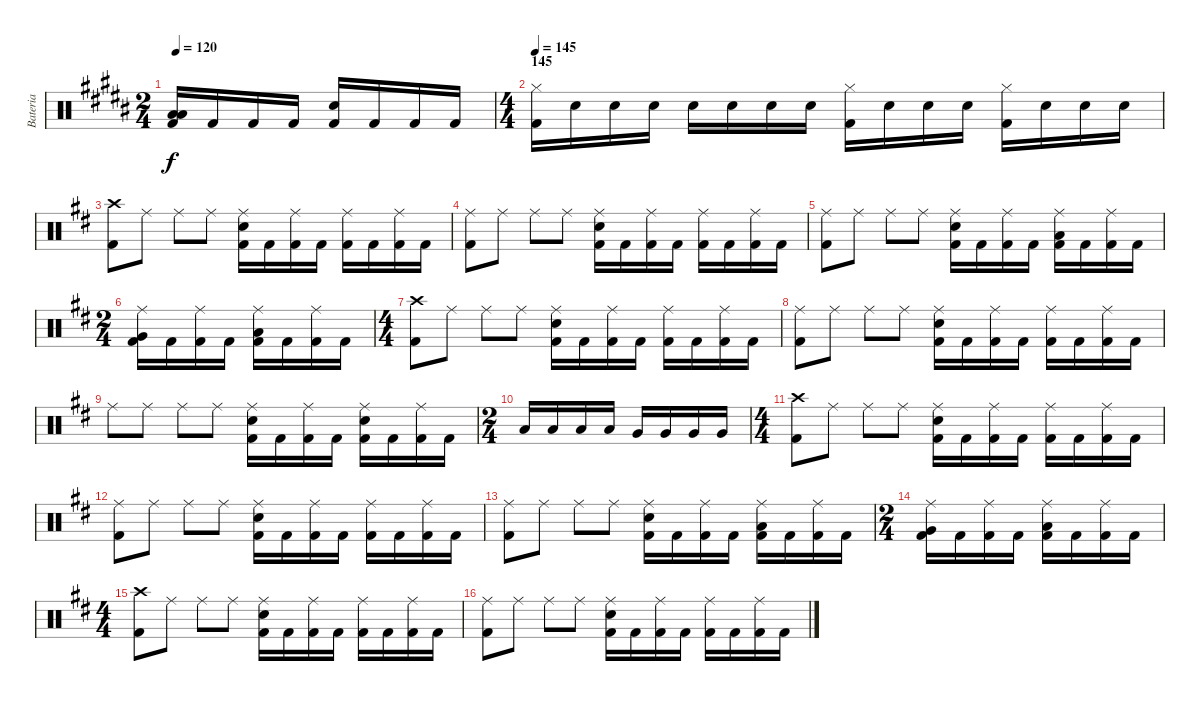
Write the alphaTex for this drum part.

\track ("Bateria" "Bateria") {instrument percussion}
\staff {score}
\articulation defaults
\ts (2 4)
\tempo 120
\clef neutral
\ks b
("Low Tom (hit)" "Low Tom (hit)" "Kick (hit) 2").16{dy f} "Kick (hit) 2".16 "Kick (hit) 2".16 "Kick (hit) 2".16 ("Snare (hit) 2" "Kick (hit) 2").16 "Kick (hit) 2".16 "Kick (hit) 2".16 "Kick (hit) 2".16 |
\ts (4 4)
\section ("" "145")
\tempo 145
("Hi-Hat (closed)" "Kick (hit) 2").16 "Snare (hit) 2".16 "Snare (hit) 2".16 "Snare (hit) 2".16 "Snare (hit) 2".16 "Snare (hit) 2".16 "Snare (hit) 2".16 "Snare (hit) 2".16 ("Hi-Hat (closed)" "Kick (hit) 2").16 "Snare (hit) 2".16 "Snare (hit) 2".16 "Snare (hit) 2".16 ("Hi-Hat (closed)" "Kick (hit) 2").16 "Snare (hit) 2".16 "Snare (hit) 2".16 "Snare (hit) 2".16 |
\ks d
("Crash high (hit)" "Kick (hit) 2").8 "Ride (middle)".8 "Ride (middle)".8 "Ride (middle)".8 ("Ride (middle)" "Snare (hit) 2" "Kick (hit) 2").16 "Kick (hit) 2".16 ("Ride (middle)" "Kick (hit) 2").16 "Kick (hit) 2".16 ("Ride (middle)" "Kick (hit) 2").16 "Kick (hit) 2".16 ("Ride (middle)" "Kick (hit) 2").16 "Kick (hit) 2".16 |
("Ride (middle)" "Kick (hit) 2").8 "Ride (middle)".8 "Ride (middle)".8 "Ride (middle)".8 ("Ride (middle)" "Snare (hit) 2" "Kick (hit) 2").16 "Kick (hit) 2".16 ("Ride (middle)" "Kick (hit) 2").16 "Kick (hit) 2".16 ("Ride (middle)" "Kick (hit) 2").16 "Kick (hit) 2".16 ("Ride (middle)" "Kick (hit) 2").16 "Kick (hit) 2".16 |
("Ride (middle)" "Kick (hit) 2").8 "Ride (middle)".8 "Ride (middle)".8 "Ride (middle)".8 ("Ride (middle)" "Snare (hit) 2" "Kick (hit) 2").16 "Kick (hit) 2".16 ("Ride (middle)" "Kick (hit) 2").16 "Kick (hit) 2".16 ("Ride (middle)" "Low Tom (hit)" "Kick (hit) 2").16 "Kick (hit) 2".16 ("Ride (middle)" "Kick (hit) 2").16 "Kick (hit) 2".16 |
\ts (2 4)
("Ride (middle)" "Very Low Tom (hit)" "Kick (hit) 2").16 "Kick (hit) 2".16 ("Ride (middle)" "Kick (hit) 2").16 "Kick (hit) 2".16 ("Ride (middle)" "Low Tom (hit)" "Kick (hit) 2").16 "Kick (hit) 2".16 ("Ride (middle)" "Kick (hit) 2").16 "Kick (hit) 2".16 |
\ts (4 4)
("Crash high (hit)" "Kick (hit) 2").8 "Ride (middle)".8 "Ride (middle)".8 "Ride (middle)".8 ("Ride (middle)" "Snare (hit) 2" "Kick (hit) 2").16 "Kick (hit) 2".16 ("Ride (middle)" "Kick (hit) 2").16 "Kick (hit) 2".16 ("Ride (middle)" "Kick (hit) 2").16 "Kick (hit) 2".16 ("Ride (middle)" "Kick (hit) 2").16 "Kick (hit) 2".16 |
("Ride (middle)" "Kick (hit) 2").8 "Ride (middle)".8 "Ride (middle)".8 "Ride (middle)".8 ("Ride (middle)" "Snare (hit) 2" "Kick (hit) 2").16 "Kick (hit) 2".16 ("Ride (middle)" "Kick (hit) 2").16 "Kick (hit) 2".16 ("Ride (middle)" "Kick (hit) 2").16 "Kick (hit) 2".16 ("Ride (middle)" "Kick (hit) 2").16 "Kick (hit) 2".16 |
"Ride (middle)".8 "Ride (middle)".8 "Ride (middle)".8 "Ride (middle)".8 ("Ride (middle)" "Snare (hit) 2" "Kick (hit) 2").16 "Kick (hit) 2".16 ("Ride (middle)" "Kick (hit) 2").16 "Kick (hit) 2".16 ("Ride (middle)" "Snare (hit) 2" "Kick (hit) 2").16 "Kick (hit) 2".16 ("Ride (middle)" "Kick (hit) 2").16 "Kick (hit) 2".16 |
\ts (2 4)
"Low Tom (hit)".16 "Low Tom (hit)".16 "Low Tom (hit)".16 "Low Tom (hit)".16 "Very Low Tom (hit)".16 "Very Low Tom (hit)".16 "Very Low Tom (hit)".16 "Very Low Tom (hit)".16 |
\ts (4 4)
("Crash high (hit)" "Kick (hit) 2").8 "Ride (middle)".8 "Ride (middle)".8 "Ride (middle)".8 ("Ride (middle)" "Snare (hit) 2" "Kick (hit) 2").16 "Kick (hit) 2".16 ("Ride (middle)" "Kick (hit) 2").16 "Kick (hit) 2".16 ("Ride (middle)" "Kick (hit) 2").16 "Kick (hit) 2".16 ("Ride (middle)" "Kick (hit) 2").16 "Kick (hit) 2".16 |
("Ride (middle)" "Kick (hit) 2").8 "Ride (middle)".8 "Ride (middle)".8 "Ride (middle)".8 ("Ride (middle)" "Snare (hit) 2" "Kick (hit) 2").16 "Kick (hit) 2".16 ("Ride (middle)" "Kick (hit) 2").16 "Kick (hit) 2".16 ("Ride (middle)" "Kick (hit) 2").16 "Kick (hit) 2".16 ("Ride (middle)" "Kick (hit) 2").16 "Kick (hit) 2".16 |
("Ride (middle)" "Kick (hit) 2").8 "Ride (middle)".8 "Ride (middle)".8 "Ride (middle)".8 ("Ride (middle)" "Snare (hit) 2" "Kick (hit) 2").16 "Kick (hit) 2".16 ("Ride (middle)" "Kick (hit) 2").16 "Kick (hit) 2".16 ("Ride (middle)" "Low Tom (hit)" "Kick (hit) 2").16 "Kick (hit) 2".16 ("Ride (middle)" "Kick (hit) 2").16 "Kick (hit) 2".16 |
\ts (2 4)
("Ride (middle)" "Very Low Tom (hit)" "Kick (hit) 2").16 "Kick (hit) 2".16 ("Ride (middle)" "Kick (hit) 2").16 "Kick (hit) 2".16 ("Ride (middle)" "Low Tom (hit)" "Kick (hit) 2").16 "Kick (hit) 2".16 ("Ride (middle)" "Kick (hit) 2").16 "Kick (hit) 2".16 |
\ts (4 4)
("Crash high (hit)" "Kick (hit) 2").8 "Ride (middle)".8 "Ride (middle)".8 "Ride (middle)".8 ("Ride (middle)" "Snare (hit) 2" "Kick (hit) 2").16 "Kick (hit) 2".16 ("Ride (middle)" "Kick (hit) 2").16 "Kick (hit) 2".16 ("Ride (middle)" "Kick (hit) 2").16 "Kick (hit) 2".16 ("Ride (middle)" "Kick (hit) 2").16 "Kick (hit) 2".16 |
("Ride (middle)" "Kick (hit) 2").8 "Ride (middle)".8 "Ride (middle)".8 "Ride (middle)".8 ("Ride (middle)" "Snare (hit) 2" "Kick (hit) 2").16 "Kick (hit) 2".16 ("Ride (middle)" "Kick (hit) 2").16 "Kick (hit) 2".16 ("Ride (middle)" "Kick (hit) 2").16 "Kick (hit) 2".16 ("Ride (middle)" "Kick (hit) 2").16 "Kick (hit) 2".16
